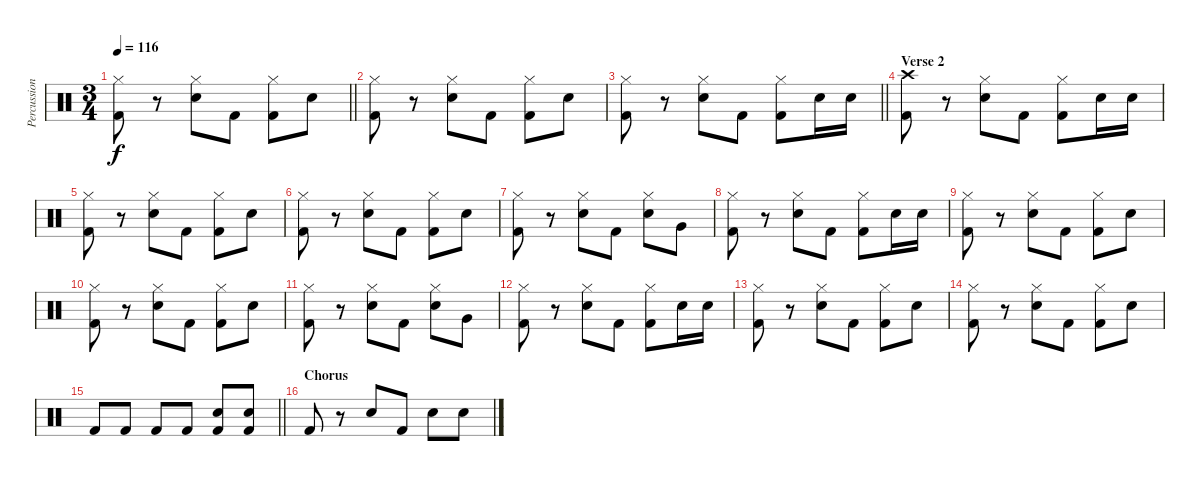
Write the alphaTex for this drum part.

\track ("Percussion" "Percussion") {instrument percussion}
\staff {score}
\articulation defaults
\ts (3 4)
\tempo 116
\clef neutral
\barLineRight lightlight
\ks c
("Hi-Hat (closed)" "Kick (hit) 2").8{dy f} r.8 ("Hi-Hat (closed)" "Electric Snare (hit)").8 "Kick (hit) 2".8 ("Hi-Hat (closed)" "Kick (hit) 2").8 "Electric Snare (hit)".8 |
("Hi-Hat (closed)" "Kick (hit) 2").8 r.8 ("Hi-Hat (closed)" "Electric Snare (hit)").8 "Kick (hit) 2".8 ("Hi-Hat (closed)" "Kick (hit) 2").8 "Electric Snare (hit)".8 |
\barLineRight lightlight
("Hi-Hat (closed)" "Kick (hit) 2").8 r.8 ("Hi-Hat (closed)" "Electric Snare (hit)").8 "Kick (hit) 2".8 ("Hi-Hat (closed)" "Kick (hit) 2").8 "Electric Snare (hit)".16 "Electric Snare (hit)".16 |
\section ("" "Verse 2")
("Crash high (hit)" "Kick (hit) 2").8 r.8 ("Hi-Hat (closed)" "Electric Snare (hit)").8 "Kick (hit) 2".8 ("Hi-Hat (closed)" "Kick (hit) 2").8 "Electric Snare (hit)".16 "Electric Snare (hit)".16 |
("Hi-Hat (closed)" "Kick (hit) 2").8 r.8 ("Hi-Hat (closed)" "Electric Snare (hit)").8 "Kick (hit) 2".8 ("Hi-Hat (closed)" "Kick (hit) 2").8 "Electric Snare (hit)".8 |
("Hi-Hat (closed)" "Kick (hit) 2").8 r.8 ("Hi-Hat (closed)" "Electric Snare (hit)").8 "Kick (hit) 2".8 ("Hi-Hat (closed)" "Kick (hit) 2").8 "Electric Snare (hit)".8 |
("Hi-Hat (closed)" "Kick (hit) 2").8 r.8 ("Hi-Hat (closed)" "Electric Snare (hit)").8 "Kick (hit) 2".8 ("Hi-Hat (closed)" "Electric Snare (hit)").8 "Very Low Tom (hit)".8 |
("Hi-Hat (closed)" "Kick (hit) 2").8 r.8 ("Hi-Hat (closed)" "Electric Snare (hit)").8 "Kick (hit) 2".8 ("Hi-Hat (closed)" "Kick (hit) 2").8 "Electric Snare (hit)".16 "Electric Snare (hit)".16 |
("Hi-Hat (closed)" "Kick (hit) 2").8 r.8 ("Hi-Hat (closed)" "Electric Snare (hit)").8 "Kick (hit) 2".8 ("Hi-Hat (closed)" "Kick (hit) 2").8 "Electric Snare (hit)".8 |
("Hi-Hat (closed)" "Kick (hit) 2").8 r.8 ("Hi-Hat (closed)" "Electric Snare (hit)").8 "Kick (hit) 2".8 ("Hi-Hat (closed)" "Kick (hit) 2").8 "Electric Snare (hit)".8 |
("Hi-Hat (closed)" "Kick (hit) 2").8 r.8 ("Hi-Hat (closed)" "Electric Snare (hit)").8 "Kick (hit) 2".8 ("Hi-Hat (closed)" "Electric Snare (hit)").8 "Very Low Tom (hit)".8 |
("Hi-Hat (closed)" "Kick (hit) 2").8 r.8 ("Hi-Hat (closed)" "Electric Snare (hit)").8 "Kick (hit) 2".8 ("Hi-Hat (closed)" "Kick (hit) 2").8 "Electric Snare (hit)".16 "Electric Snare (hit)".16 |
("Hi-Hat (closed)" "Kick (hit) 2").8 r.8 ("Hi-Hat (closed)" "Electric Snare (hit)").8 "Kick (hit) 2".8 ("Hi-Hat (closed)" "Kick (hit) 2").8 "Electric Snare (hit)".8 |
("Hi-Hat (closed)" "Kick (hit) 2").8 r.8 ("Hi-Hat (closed)" "Electric Snare (hit)").8 "Kick (hit) 2".8 ("Hi-Hat (closed)" "Kick (hit) 2").8 "Electric Snare (hit)".8 |
\barLineRight lightlight "Kick (hit) 2".8 "Kick (hit) 2".8 "Kick (hit) 2".8 "Kick (hit) 2".8
("Electric Snare (hit)" "Kick (hit) 2").8 ("Electric Snare (hit)" "Kick (hit) 2").8 |
\section ("" "Chorus")
"Kick (hit) 2".8 r.8 "Electric Snare (hit)".8 "Kick (hit) 2".8 "Electric Snare (hit)".8 "Electric Snare (hit)".8
